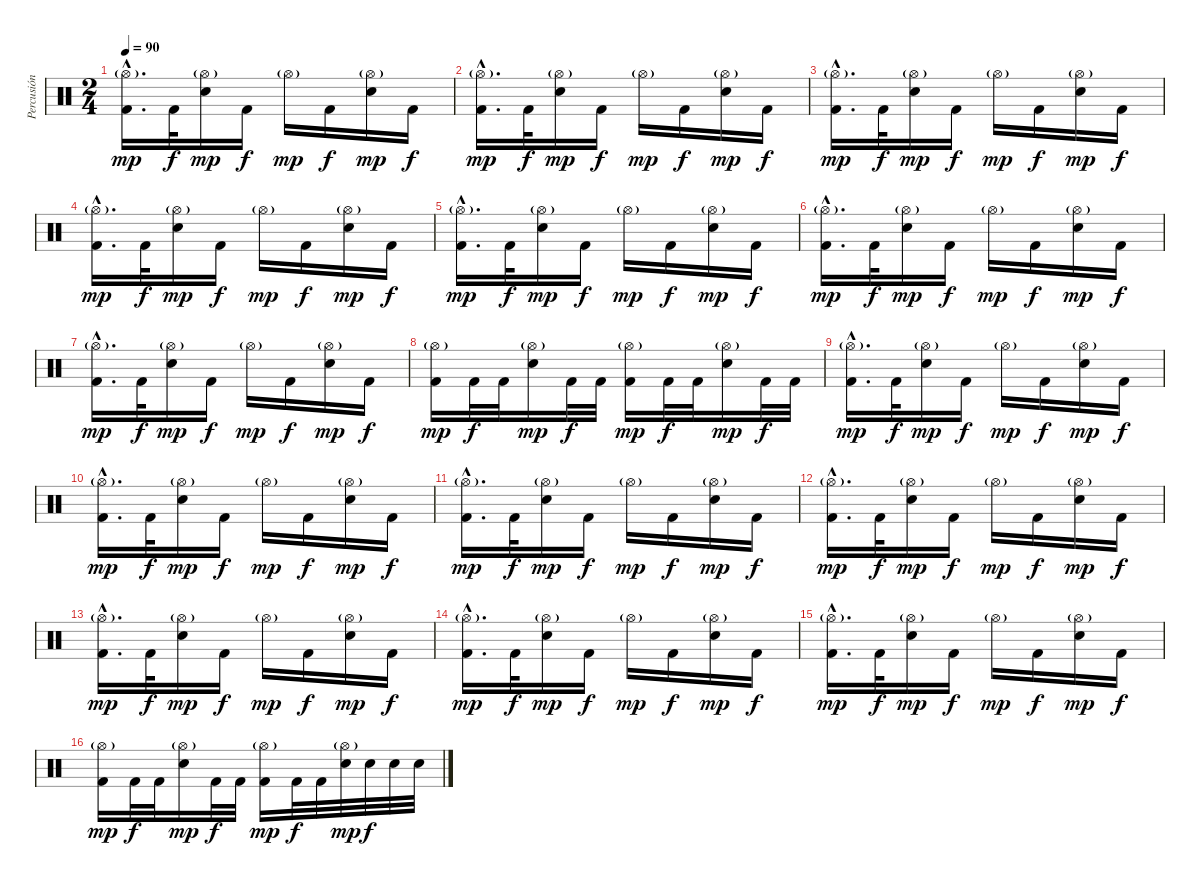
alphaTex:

\track ("Percusión" "Percusión") {instrument percussion}
\staff {score}
\articulation defaults
\ts (2 4)
\tempo 90
\clef neutral
\ks c
("Kick (hit) 2"{hac} "Hi-Hat (open)"{g hac}).16{d dy mp} "Kick (hit) 2".32{dy f} ("Electric Snare (hit)" "Hi-Hat (open)"{g}).16{dy mp} "Kick (hit) 2".16{dy f} "Hi-Hat (open)"{g}.16{dy mp} "Kick (hit) 2".16{dy f} ("Electric Snare (hit)" "Hi-Hat (open)"{g}).16{dy mp} "Kick (hit) 2".16{dy f} |
("Kick (hit) 2"{hac} "Hi-Hat (open)"{g hac}).16{d dy mp} "Kick (hit) 2".32{dy f} ("Electric Snare (hit)" "Hi-Hat (open)"{g}).16{dy mp} "Kick (hit) 2".16{dy f} "Hi-Hat (open)"{g}.16{dy mp} "Kick (hit) 2".16{dy f} ("Electric Snare (hit)" "Hi-Hat (open)"{g}).16{dy mp} "Kick (hit) 2".16{dy f} |
("Kick (hit) 2"{hac} "Hi-Hat (open)"{g hac}).16{d dy mp} "Kick (hit) 2".32{dy f} ("Electric Snare (hit)" "Hi-Hat (open)"{g}).16{dy mp} "Kick (hit) 2".16{dy f} "Hi-Hat (open)"{g}.16{dy mp} "Kick (hit) 2".16{dy f} ("Electric Snare (hit)" "Hi-Hat (open)"{g}).16{dy mp} "Kick (hit) 2".16{dy f} |
("Kick (hit) 2"{hac} "Hi-Hat (open)"{g hac}).16{d dy mp} "Kick (hit) 2".32{dy f} ("Electric Snare (hit)" "Hi-Hat (open)"{g}).16{dy mp} "Kick (hit) 2".16{dy f} "Hi-Hat (open)"{g}.16{dy mp} "Kick (hit) 2".16{dy f} ("Electric Snare (hit)" "Hi-Hat (open)"{g}).16{dy mp} "Kick (hit) 2".16{dy f} |
("Kick (hit) 2"{hac} "Hi-Hat (open)"{g hac}).16{d dy mp} "Kick (hit) 2".32{dy f} ("Electric Snare (hit)" "Hi-Hat (open)"{g}).16{dy mp} "Kick (hit) 2".16{dy f} "Hi-Hat (open)"{g}.16{dy mp} "Kick (hit) 2".16{dy f} ("Electric Snare (hit)" "Hi-Hat (open)"{g}).16{dy mp} "Kick (hit) 2".16{dy f} |
("Kick (hit) 2"{hac} "Hi-Hat (open)"{g hac}).16{d dy mp} "Kick (hit) 2".32{dy f} ("Electric Snare (hit)" "Hi-Hat (open)"{g}).16{dy mp} "Kick (hit) 2".16{dy f} "Hi-Hat (open)"{g}.16{dy mp} "Kick (hit) 2".16{dy f} ("Electric Snare (hit)" "Hi-Hat (open)"{g}).16{dy mp} "Kick (hit) 2".16{dy f} |
("Kick (hit) 2"{hac} "Hi-Hat (open)"{g hac}).16{d dy mp} "Kick (hit) 2".32{dy f} ("Electric Snare (hit)" "Hi-Hat (open)"{g}).16{dy mp} "Kick (hit) 2".16{dy f} "Hi-Hat (open)"{g}.16{dy mp} "Kick (hit) 2".16{dy f} ("Electric Snare (hit)" "Hi-Hat (open)"{g}).16{dy mp} "Kick (hit) 2".16{dy f} |
("Kick (hit) 2" "Hi-Hat (open)"{g}).16{dy mp} "Kick (hit) 2".32{dy f} "Kick (hit) 2".32 ("Electric Snare (hit)" "Hi-Hat (open)"{g}).16{dy mp} "Kick (hit) 2".32{dy f} "Kick (hit) 2".32 ("Kick (hit) 2" "Hi-Hat (open)"{g}).16{dy mp} "Kick (hit) 2".32{dy f} "Kick (hit) 2".32 ("Electric Snare (hit)" "Hi-Hat (open)"{g}).16{dy mp} "Kick (hit) 2".32{dy f} "Kick (hit) 2".32 |
("Kick (hit) 2"{hac} "Hi-Hat (open)"{g hac}).16{d dy mp} "Kick (hit) 2".32{dy f} ("Electric Snare (hit)" "Hi-Hat (open)"{g}).16{dy mp} "Kick (hit) 2".16{dy f} "Hi-Hat (open)"{g}.16{dy mp} "Kick (hit) 2".16{dy f} ("Electric Snare (hit)" "Hi-Hat (open)"{g}).16{dy mp} "Kick (hit) 2".16{dy f} |
("Kick (hit) 2"{hac} "Hi-Hat (open)"{g hac}).16{d dy mp} "Kick (hit) 2".32{dy f} ("Electric Snare (hit)" "Hi-Hat (open)"{g}).16{dy mp} "Kick (hit) 2".16{dy f} "Hi-Hat (open)"{g}.16{dy mp} "Kick (hit) 2".16{dy f} ("Electric Snare (hit)" "Hi-Hat (open)"{g}).16{dy mp} "Kick (hit) 2".16{dy f} |
("Kick (hit) 2"{hac} "Hi-Hat (open)"{g hac}).16{d dy mp} "Kick (hit) 2".32{dy f} ("Electric Snare (hit)" "Hi-Hat (open)"{g}).16{dy mp} "Kick (hit) 2".16{dy f} "Hi-Hat (open)"{g}.16{dy mp} "Kick (hit) 2".16{dy f} ("Electric Snare (hit)" "Hi-Hat (open)"{g}).16{dy mp} "Kick (hit) 2".16{dy f} |
("Kick (hit) 2"{hac} "Hi-Hat (open)"{g hac}).16{d dy mp} "Kick (hit) 2".32{dy f} ("Electric Snare (hit)" "Hi-Hat (open)"{g}).16{dy mp} "Kick (hit) 2".16{dy f} "Hi-Hat (open)"{g}.16{dy mp} "Kick (hit) 2".16{dy f} ("Electric Snare (hit)" "Hi-Hat (open)"{g}).16{dy mp} "Kick (hit) 2".16{dy f} |
("Kick (hit) 2"{hac} "Hi-Hat (open)"{g hac}).16{d dy mp} "Kick (hit) 2".32{dy f} ("Electric Snare (hit)" "Hi-Hat (open)"{g}).16{dy mp} "Kick (hit) 2".16{dy f} "Hi-Hat (open)"{g}.16{dy mp} "Kick (hit) 2".16{dy f} ("Electric Snare (hit)" "Hi-Hat (open)"{g}).16{dy mp} "Kick (hit) 2".16{dy f} |
("Kick (hit) 2"{hac} "Hi-Hat (open)"{g hac}).16{d dy mp} "Kick (hit) 2".32{dy f} ("Electric Snare (hit)" "Hi-Hat (open)"{g}).16{dy mp} "Kick (hit) 2".16{dy f} "Hi-Hat (open)"{g}.16{dy mp} "Kick (hit) 2".16{dy f} ("Electric Snare (hit)" "Hi-Hat (open)"{g}).16{dy mp} "Kick (hit) 2".16{dy f} |
("Kick (hit) 2"{hac} "Hi-Hat (open)"{g hac}).16{d dy mp} "Kick (hit) 2".32{dy f} ("Electric Snare (hit)" "Hi-Hat (open)"{g}).16{dy mp} "Kick (hit) 2".16{dy f} "Hi-Hat (open)"{g}.16{dy mp} "Kick (hit) 2".16{dy f} ("Electric Snare (hit)" "Hi-Hat (open)"{g}).16{dy mp} "Kick (hit) 2".16{dy f} |
("Kick (hit) 2" "Hi-Hat (open)"{g}).16{dy mp} "Kick (hit) 2".32{dy f} "Kick (hit) 2".32 ("Electric Snare (hit)" "Hi-Hat (open)"{g}).16{dy mp} "Kick (hit) 2".32{dy f} "Kick (hit) 2".32 ("Kick (hit) 2" "Hi-Hat (open)"{g}).16{dy mp} "Kick (hit) 2".32{dy f} "Kick (hit) 2".32 ("Electric Snare (hit)" "Hi-Hat (open)"{g}).32{dy mp} "Electric Snare (hit)".32{dy f} "Electric Snare (hit)".32 "Electric Snare (hit)".32
